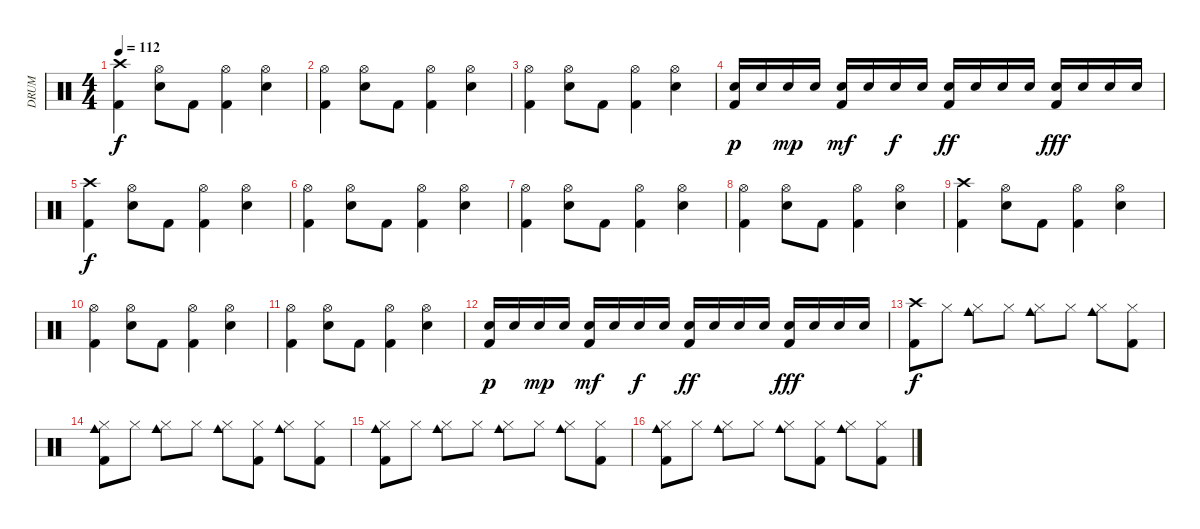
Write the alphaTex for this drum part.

\track ("DRUM" "DRUM") {instrument percussion}
\staff {score}
\articulation defaults
\ts (4 4)
\tempo 112
\clef neutral
\ks c
("Crash high (hit)" "Kick (hit) 2").4{dy f} ("Snare (hit) 2" "Hi-Hat (open)").8 "Kick (hit) 2".8 ("Hi-Hat (open)" "Kick (hit) 2").4 ("Snare (hit) 2" "Hi-Hat (open)").4 |
("Hi-Hat (open)" "Kick (hit) 2").4 ("Snare (hit) 2" "Hi-Hat (open)").8 "Kick (hit) 2".8 ("Hi-Hat (open)" "Kick (hit) 2").4 ("Snare (hit) 2" "Hi-Hat (open)").4 |
("Hi-Hat (open)" "Kick (hit) 2").4 ("Snare (hit) 2" "Hi-Hat (open)").8 "Kick (hit) 2".8 ("Hi-Hat (open)" "Kick (hit) 2").4 ("Snare (hit) 2" "Hi-Hat (open)").4 |
("Snare (hit) 2" "Kick (hit) 2").16{dy p} "Snare (hit) 2".16 "Snare (hit) 2".16{dy mp} "Snare (hit) 2".16 ("Snare (hit) 2" "Kick (hit) 2").16{dy mf} "Snare (hit) 2".16 "Snare (hit) 2".16{dy f} "Snare (hit) 2".16 ("Snare (hit) 2" "Kick (hit) 2").16{dy ff} "Snare (hit) 2".16 "Snare (hit) 2".16 "Snare (hit) 2".16 ("Snare (hit) 2" "Kick (hit) 2").16{dy fff} "Snare (hit) 2".16 "Snare (hit) 2".16 "Snare (hit) 2".16 |
("Crash high (hit)" "Kick (hit) 2").4{dy f} ("Snare (hit) 2" "Hi-Hat (open)").8 "Kick (hit) 2".8 ("Hi-Hat (open)" "Kick (hit) 2").4 ("Snare (hit) 2" "Hi-Hat (open)").4 |
("Hi-Hat (open)" "Kick (hit) 2").4 ("Snare (hit) 2" "Hi-Hat (open)").8 "Kick (hit) 2".8 ("Hi-Hat (open)" "Kick (hit) 2").4 ("Snare (hit) 2" "Hi-Hat (open)").4 |
("Hi-Hat (open)" "Kick (hit) 2").4 ("Snare (hit) 2" "Hi-Hat (open)").8 "Kick (hit) 2".8 ("Hi-Hat (open)" "Kick (hit) 2").4 ("Snare (hit) 2" "Hi-Hat (open)").4 |
("Hi-Hat (open)" "Kick (hit) 2").4 ("Snare (hit) 2" "Hi-Hat (open)").8 "Kick (hit) 2".8 ("Hi-Hat (open)" "Kick (hit) 2").4 ("Snare (hit) 2" "Hi-Hat (open)").4 |
("Crash high (hit)" "Kick (hit) 2").4 ("Snare (hit) 2" "Hi-Hat (open)").8 "Kick (hit) 2".8 ("Hi-Hat (open)" "Kick (hit) 2").4 ("Snare (hit) 2" "Hi-Hat (open)").4 |
("Hi-Hat (open)" "Kick (hit) 2").4 ("Snare (hit) 2" "Hi-Hat (open)").8 "Kick (hit) 2".8 ("Hi-Hat (open)" "Kick (hit) 2").4 ("Snare (hit) 2" "Hi-Hat (open)").4 |
("Hi-Hat (open)" "Kick (hit) 2").4 ("Snare (hit) 2" "Hi-Hat (open)").8 "Kick (hit) 2".8 ("Hi-Hat (open)" "Kick (hit) 2").4 ("Snare (hit) 2" "Hi-Hat (open)").4 |
("Snare (hit) 2" "Kick (hit) 2").16{dy p} "Snare (hit) 2".16 "Snare (hit) 2".16{dy mp} "Snare (hit) 2".16 ("Snare (hit) 2" "Kick (hit) 2").16{dy mf} "Snare (hit) 2".16 "Snare (hit) 2".16{dy f} "Snare (hit) 2".16 ("Snare (hit) 2" "Kick (hit) 2").16{dy ff} "Snare (hit) 2".16 "Snare (hit) 2".16 "Snare (hit) 2".16 ("Snare (hit) 2" "Kick (hit) 2").16{dy fff} "Snare (hit) 2".16 "Snare (hit) 2".16 "Snare (hit) 2".16 |
("Crash high (hit)" "Kick (hit) 2").8{dy f volume 13} "Hi-Hat (closed)".8 ("Cowbell medium (hit)" "Hi-Hat (closed)").8 "Hi-Hat (closed)".8 ("Cowbell medium (hit)" "Hi-Hat (closed)").8 "Hi-Hat (closed)".8 ("Cowbell medium (hit)" "Hi-Hat (closed)").8 ("Hi-Hat (closed)" "Kick (hit) 2").8 |
("Cowbell medium (hit)" "Hi-Hat (closed)" "Kick (hit) 2").8 "Hi-Hat (closed)".8 ("Cowbell medium (hit)" "Hi-Hat (closed)").8 "Hi-Hat (closed)".8 ("Cowbell medium (hit)" "Hi-Hat (closed)").8 ("Hi-Hat (closed)" "Kick (hit) 2").8 ("Cowbell medium (hit)" "Hi-Hat (closed)").8 ("Hi-Hat (closed)" "Kick (hit) 2").8 |
("Cowbell medium (hit)" "Hi-Hat (closed)" "Kick (hit) 2").8 "Hi-Hat (closed)".8 ("Cowbell medium (hit)" "Hi-Hat (closed)").8 "Hi-Hat (closed)".8 ("Cowbell medium (hit)" "Hi-Hat (closed)").8 "Hi-Hat (closed)".8 ("Cowbell medium (hit)" "Hi-Hat (closed)").8 ("Hi-Hat (closed)" "Kick (hit) 2").8 |
("Cowbell medium (hit)" "Hi-Hat (closed)" "Kick (hit) 2").8 "Hi-Hat (closed)".8 ("Cowbell medium (hit)" "Hi-Hat (closed)").8 "Hi-Hat (closed)".8 ("Cowbell medium (hit)" "Hi-Hat (closed)").8 ("Hi-Hat (closed)" "Kick (hit) 2").8 ("Cowbell medium (hit)" "Hi-Hat (closed)").8 ("Hi-Hat (closed)" "Kick (hit) 2").8
